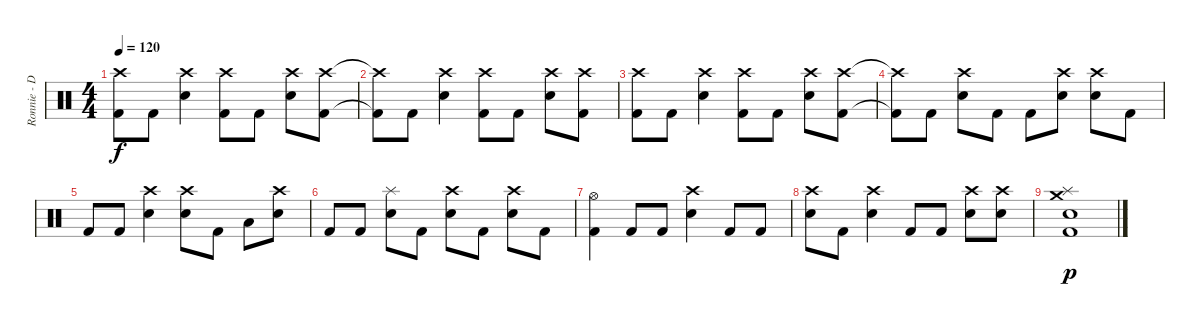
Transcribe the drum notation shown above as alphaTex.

\track ("Ronnie - Drums" "Ronnie - D") {instrument percussion}
\staff {score}
\articulation defaults
\ts (4 4)
\tempo 120
\clef neutral
\ks c
("Crash high (hit)" "Kick (hit) 2").8{dy f} "Kick (hit) 2".8 ("Crash high (hit)" "Snare (hit) 2").4 ("Crash high (hit)" "Kick (hit) 2").8 "Kick (hit) 2".8 ("Crash high (hit)" "Snare (hit) 2").8 ("Crash high (hit)" "Kick (hit) 2").8 |
("Crash high (hit)"{t} "Kick (hit) 2"{t}).8 "Kick (hit) 2".8 ("Crash high (hit)" "Snare (hit) 2").4 ("Crash high (hit)" "Kick (hit) 2").8 "Kick (hit) 2".8 ("Crash high (hit)" "Snare (hit) 2").8 ("Crash high (hit)" "Kick (hit) 2").8 |
("Crash high (hit)" "Kick (hit) 2").8 "Kick (hit) 2".8 ("Crash high (hit)" "Snare (hit) 2").4 ("Crash high (hit)" "Kick (hit) 2").8 "Kick (hit) 2".8 ("Crash high (hit)" "Snare (hit) 2").8 ("Crash high (hit)" "Kick (hit) 2").8 |
("Crash high (hit)"{t} "Kick (hit) 2"{t}).8 "Kick (hit) 2".8 ("Crash high (hit)" "Snare (hit) 2").8 "Kick (hit) 2".8 "Kick (hit) 2".8 ("Crash high (hit)" "Snare (hit) 2").8 ("Crash high (hit)" "Snare (hit) 2").8 "Kick (hit) 2".8 |
"Kick (hit) 2".8 "Kick (hit) 2".8 ("Crash high (hit)" "Snare (hit) 2").4 ("Crash high (hit)" "Snare (hit) 2").8 "Kick (hit) 2".8 "Low Floor Tom (hit)".8 ("Crash high (hit)" "Snare (hit) 2").8 |
"Kick (hit) 2".8 "Kick (hit) 2".8 ("Splash (hit)" "Snare (hit) 2").8 "Kick (hit) 2".8 ("Crash high (hit)" "Snare (hit) 2").8 "Kick (hit) 2".8 ("Crash high (hit)" "Snare (hit) 2").8 "Kick (hit) 2".8 |
("Hi-Hat (open)" "Kick (hit) 2").4 "Kick (hit) 2".8 "Kick (hit) 2".8 ("Crash high (hit)" "Snare (hit) 2").4 "Kick (hit) 2".8 "Kick (hit) 2".8 |
("Crash high (hit)" "Snare (hit) 2").8 "Kick (hit) 2".8 ("Crash high (hit)" "Snare (hit) 2").4 "Kick (hit) 2".8 "Kick (hit) 2".8 ("Crash high (hit)" "Snare (hit) 2").8 ("Crash high (hit)" "Snare (hit) 2").8 |
("Crash medium (hit)" "Snare (hit) 2" "Kick (hit) 2" "Splash (hit)").1{dy p}
